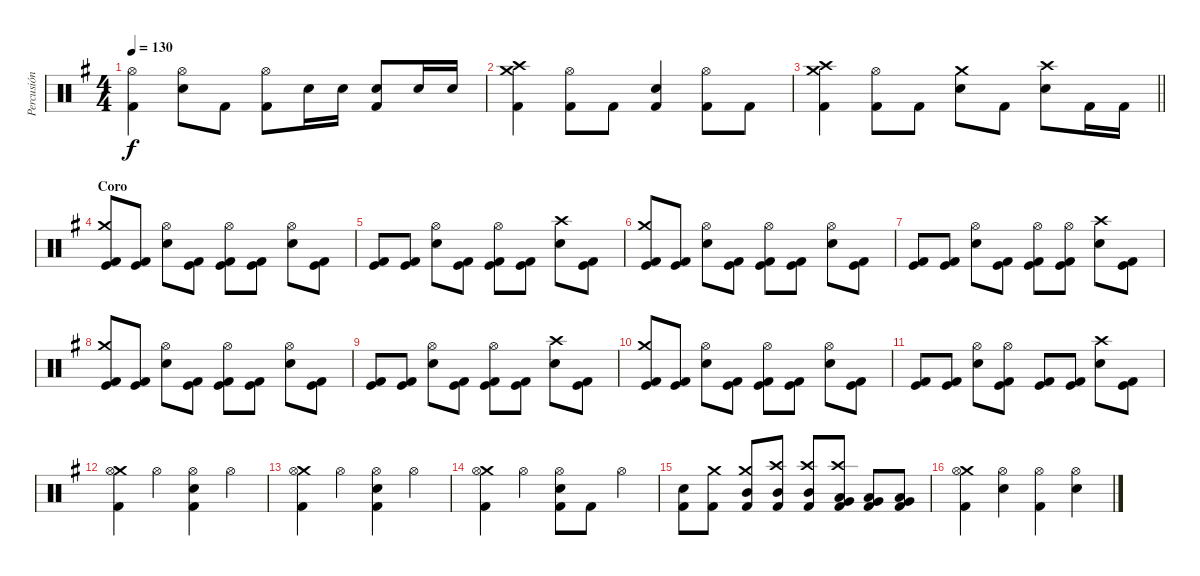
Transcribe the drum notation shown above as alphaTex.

\track ("Percusión" "Percusión") {instrument percussion}
\staff {score}
\articulation defaults
\ts (4 4)
\tempo 130
\clef neutral
\ks g
("Hi-Hat (open)" "Kick (hit) 2").4{dy f} ("Hi-Hat (open)" "Electric Snare (hit)").8 "Kick (hit) 2".8 ("Hi-Hat (open)" "Kick (hit) 2").8 "Electric Snare (hit)".16 "Electric Snare (hit)".16 ("Electric Snare (hit)" "Kick (hit) 2").8 "Electric Snare (hit)".16 "Electric Snare (hit)".16 |
("Crash medium (hit)" "Crash high (hit)" "Kick (hit) 2").4 ("Hi-Hat (open)" "Kick (hit) 2").8 "Kick (hit) 2".8 ("Electric Snare (hit)" "Kick (hit) 2").4 ("Hi-Hat (open)" "Kick (hit) 2").8 "Kick (hit) 2".8 |
\barLineRight lightlight
("Crash medium (hit)" "Crash high (hit)" "Kick (hit) 2").4 ("Hi-Hat (open)" "Kick (hit) 2").8 "Kick (hit) 2".8 ("Crash medium (hit)" "Electric Snare (hit)").8 "Kick (hit) 2".8 ("Crash high (hit)" "Electric Snare (hit)").8 "Kick (hit) 2".16 "Kick (hit) 2".16 |
\section ("" "Coro")
("Crash medium (hit)" "Kick (hit)" "Kick (hit) 2").8 ("Kick (hit)" "Kick (hit) 2").8 ("Hi-Hat (open)" "Electric Snare (hit)").8 ("Kick (hit)" "Kick (hit) 2").8 ("Hi-Hat (open)" "Kick (hit)" "Kick (hit) 2").8 ("Kick (hit)" "Kick (hit) 2").8 ("Hi-Hat (open)" "Electric Snare (hit)").8 ("Kick (hit)" "Kick (hit) 2").8 |
("Kick (hit)" "Kick (hit) 2").8 ("Kick (hit)" "Kick (hit) 2").8 ("Hi-Hat (open)" "Electric Snare (hit)").8 ("Kick (hit)" "Kick (hit) 2").8 ("Hi-Hat (open)" "Kick (hit)" "Kick (hit) 2").8 ("Kick (hit)" "Kick (hit) 2").8 ("Crash high (hit)" "Electric Snare (hit)").8 ("Kick (hit)" "Kick (hit) 2").8 |
("Crash medium (hit)" "Kick (hit)" "Kick (hit) 2").8 ("Kick (hit)" "Kick (hit) 2").8 ("Hi-Hat (open)" "Electric Snare (hit)").8 ("Kick (hit)" "Kick (hit) 2").8 ("Hi-Hat (open)" "Kick (hit)" "Kick (hit) 2").8 ("Kick (hit)" "Kick (hit) 2").8 ("Hi-Hat (open)" "Electric Snare (hit)").8 ("Kick (hit)" "Kick (hit) 2").8 |
("Kick (hit)" "Kick (hit) 2").8 ("Kick (hit)" "Kick (hit) 2").8 ("Hi-Hat (open)" "Electric Snare (hit)").8 ("Kick (hit)" "Kick (hit) 2").8 ("Hi-Hat (open)" "Kick (hit)" "Kick (hit) 2").8 ("Hi-Hat (open)" "Kick (hit)" "Kick (hit) 2").8 ("Crash high (hit)" "Electric Snare (hit)").8 ("Kick (hit)" "Kick (hit) 2").8 |
("Crash medium (hit)" "Kick (hit)" "Kick (hit) 2").8 ("Kick (hit)" "Kick (hit) 2").8 ("Hi-Hat (open)" "Electric Snare (hit)").8 ("Kick (hit)" "Kick (hit) 2").8 ("Hi-Hat (open)" "Kick (hit)" "Kick (hit) 2").8 ("Kick (hit)" "Kick (hit) 2").8 ("Hi-Hat (open)" "Electric Snare (hit)").8 ("Kick (hit)" "Kick (hit) 2").8 |
("Kick (hit)" "Kick (hit) 2").8 ("Kick (hit)" "Kick (hit) 2").8 ("Hi-Hat (open)" "Electric Snare (hit)").8 ("Kick (hit)" "Kick (hit) 2").8 ("Hi-Hat (open)" "Kick (hit)" "Kick (hit) 2").8 ("Kick (hit)" "Kick (hit) 2").8 ("Crash high (hit)" "Electric Snare (hit)").8 ("Kick (hit)" "Kick (hit) 2").8 |
("Crash medium (hit)" "Kick (hit)" "Kick (hit) 2").8 ("Kick (hit)" "Kick (hit) 2").8 ("Hi-Hat (open)" "Electric Snare (hit)").8 ("Kick (hit)" "Kick (hit) 2").8 ("Hi-Hat (open)" "Kick (hit)" "Kick (hit) 2").8 ("Kick (hit)" "Kick (hit) 2").8 ("Hi-Hat (open)" "Electric Snare (hit)").8 ("Kick (hit)" "Kick (hit) 2").8 |
("Kick (hit)" "Kick (hit) 2").8 ("Kick (hit)" "Kick (hit) 2").8 ("Hi-Hat (open)" "Electric Snare (hit)").8 ("Hi-Hat (open)" "Kick (hit)" "Kick (hit) 2").8 ("Kick (hit)" "Kick (hit) 2").8 ("Kick (hit)" "Kick (hit) 2").8 ("Crash high (hit)" "Electric Snare (hit)").8 ("Kick (hit)" "Kick (hit) 2").8 |
("Crash medium (hit)" "Hi-Hat (open)" "Kick (hit) 2").4 "Hi-Hat (open)".4 ("Hi-Hat (open)" "Electric Snare (hit)" "Kick (hit) 2").4 "Hi-Hat (open)".4 |
("Crash medium (hit)" "Hi-Hat (open)" "Kick (hit) 2").4 "Hi-Hat (open)".4 ("Hi-Hat (open)" "Electric Snare (hit)" "Kick (hit) 2").4 "Hi-Hat (open)".4 |
("Crash medium (hit)" "Hi-Hat (open)" "Kick (hit) 2").4 "Hi-Hat (open)".4 ("Hi-Hat (open)" "Electric Snare (hit)" "Kick (hit) 2").8 "Kick (hit) 2".8 "Hi-Hat (open)".4 |
("Electric Snare (hit)" "Kick (hit) 2").8 ("Crash medium (hit)" "Kick (hit) 2").8 ("Crash medium (hit)" "Mid Tom (hit)" "Kick (hit) 2").8 ("Crash high (hit)" "Mid Tom (hit)" "Kick (hit) 2").8 ("Crash high (hit)" "Mid Tom (hit)" "Kick (hit) 2").8 ("Crash high (hit)" "Low Tom (hit)" "Very Low Tom (hit)" "Kick (hit) 2").8 ("Low Tom (hit)" "Very Low Tom (hit)" "Kick (hit) 2").8 ("Low Tom (hit)" "Very Low Tom (hit)" "Kick (hit) 2").8 |
("Crash medium (hit)" "Hi-Hat (open)" "Kick (hit) 2").4 ("Hi-Hat (open)" "Electric Snare (hit)").4 ("Hi-Hat (open)" "Kick (hit) 2").4 ("Hi-Hat (open)" "Electric Snare (hit)").4
